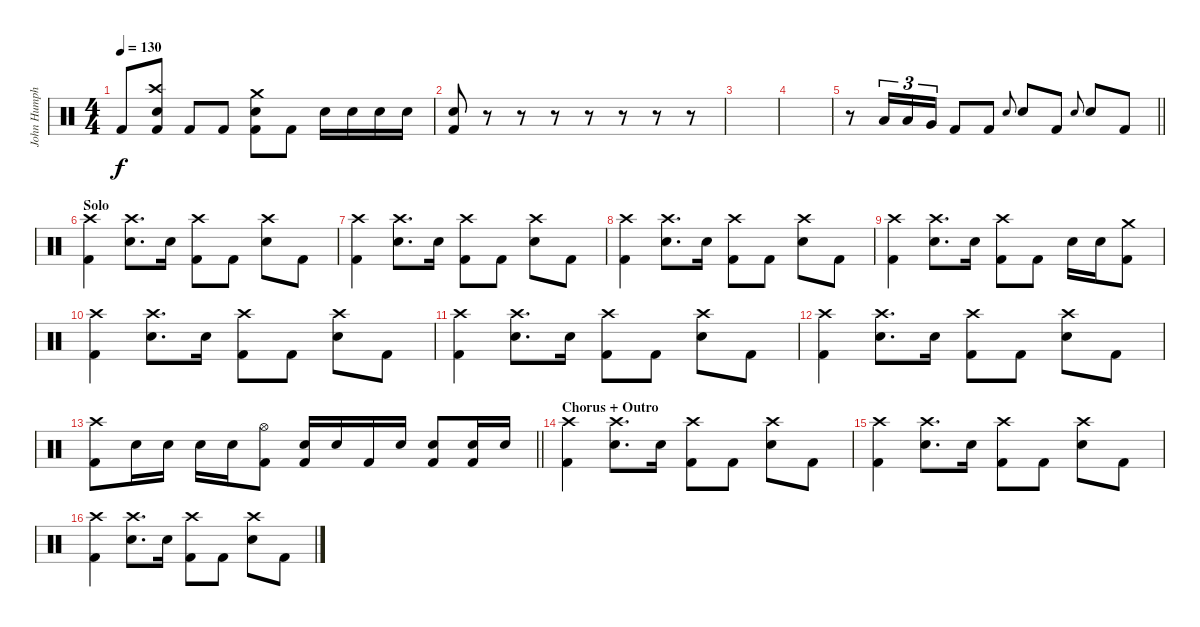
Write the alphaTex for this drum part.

\track ("John Humphrey" "John Humph") {instrument percussion}
\staff {score}
\articulation defaults
\ts (4 4)
\tempo 130
\clef neutral
\ks c "Kick (hit) 2".8{dy f}
("Crash high (hit)" "Electric Snare (hit)" "Kick (hit) 2").8 "Kick (hit) 2".8 "Kick (hit) 2".8 ("Crash medium (hit)" "Electric Snare (hit)" "Kick (hit) 2").8 "Kick (hit) 2".8 "Electric Snare (hit)".16 "Electric Snare (hit)".16 "Electric Snare (hit)".16 "Electric Snare (hit)".16 |
("Electric Snare (hit)" "Kick (hit) 2").8 r.8 r.8 r.8 r.8 r.8 r.8 r.8 |
|
|
\barLineRight lightlight
r.8 "Low Tom (hit)".16{tu (3 2)} "Low Tom (hit)".16{tu (3 2)} "Very Low Tom (hit)".16{tu (3 2)} "Kick (hit) 2".8 "Kick (hit) 2".8 "Electric Snare (hit)".8{gr onbeat} "Electric Snare (hit)".8 "Kick (hit) 2".8 "Electric Snare (hit)".8{gr onbeat} "Electric Snare (hit)".8 "Kick (hit) 2".8 |
\section ("" "Solo")
("Crash high (hit)" "Kick (hit) 2").4 ("Crash high (hit)" "Electric Snare (hit)").8{d} "Electric Snare (hit)".16 ("Crash high (hit)" "Kick (hit) 2").8 "Kick (hit) 2".8 ("Crash high (hit)" "Electric Snare (hit)").8 "Kick (hit) 2".8 |
("Crash high (hit)" "Kick (hit) 2").4 ("Crash high (hit)" "Electric Snare (hit)").8{d} "Electric Snare (hit)".16 ("Crash high (hit)" "Kick (hit) 2").8 "Kick (hit) 2".8 ("Crash high (hit)" "Electric Snare (hit)").8 "Kick (hit) 2".8 |
("Crash high (hit)" "Kick (hit) 2").4 ("Crash high (hit)" "Electric Snare (hit)").8{d} "Electric Snare (hit)".16 ("Crash high (hit)" "Kick (hit) 2").8 "Kick (hit) 2".8 ("Crash high (hit)" "Electric Snare (hit)").8 "Kick (hit) 2".8 |
("Crash high (hit)" "Kick (hit) 2").4 ("Crash high (hit)" "Electric Snare (hit)").8{d} "Electric Snare (hit)".16 ("Crash high (hit)" "Kick (hit) 2").8 "Kick (hit) 2".8 "Electric Snare (hit)".16 "Electric Snare (hit)".16 ("Crash medium (hit)" "Kick (hit) 2").8 |
("Crash high (hit)" "Kick (hit) 2").4 ("Crash high (hit)" "Electric Snare (hit)").8{d} "Electric Snare (hit)".16 ("Crash high (hit)" "Kick (hit) 2").8 "Kick (hit) 2".8 ("Crash high (hit)" "Electric Snare (hit)").8 "Kick (hit) 2".8 |
("Crash high (hit)" "Kick (hit) 2").4 ("Crash high (hit)" "Electric Snare (hit)").8{d} "Electric Snare (hit)".16 ("Crash high (hit)" "Kick (hit) 2").8 "Kick (hit) 2".8 ("Crash high (hit)" "Electric Snare (hit)").8 "Kick (hit) 2".8 |
("Crash high (hit)" "Kick (hit) 2").4 ("Crash high (hit)" "Electric Snare (hit)").8{d} "Electric Snare (hit)".16 ("Crash high (hit)" "Kick (hit) 2").8 "Kick (hit) 2".8 ("Crash high (hit)" "Electric Snare (hit)").8 "Kick (hit) 2".8 |
\barLineRight lightlight
("Crash high (hit)" "Kick (hit) 2").8 "Electric Snare (hit)".16 "Electric Snare (hit)".16 "Electric Snare (hit)".16 "Electric Snare (hit)".16 ("Hi-Hat (open)" "Kick (hit) 2").8 ("Electric Snare (hit)" "Kick (hit) 2").16 "Electric Snare (hit)".16 "Kick (hit) 2".16 "Electric Snare (hit)".16 ("Electric Snare (hit)" "Kick (hit) 2").8 ("Electric Snare (hit)" "Kick (hit) 2").16 "Electric Snare (hit)".16 |
\section ("" "Chorus + Outro")
("Crash high (hit)" "Kick (hit) 2").4 ("Crash high (hit)" "Electric Snare (hit)").8{d} "Electric Snare (hit)".16 ("Crash high (hit)" "Kick (hit) 2").8 "Kick (hit) 2".8 ("Crash high (hit)" "Electric Snare (hit)").8 "Kick (hit) 2".8 |
("Crash high (hit)" "Kick (hit) 2").4 ("Crash high (hit)" "Electric Snare (hit)").8{d} "Electric Snare (hit)".16 ("Crash high (hit)" "Kick (hit) 2").8 "Kick (hit) 2".8 ("Crash high (hit)" "Electric Snare (hit)").8 "Kick (hit) 2".8 |
("Crash high (hit)" "Kick (hit) 2").4 ("Crash high (hit)" "Electric Snare (hit)").8{d} "Electric Snare (hit)".16 ("Crash high (hit)" "Kick (hit) 2").8 "Kick (hit) 2".8 ("Crash high (hit)" "Electric Snare (hit)").8 "Kick (hit) 2".8
